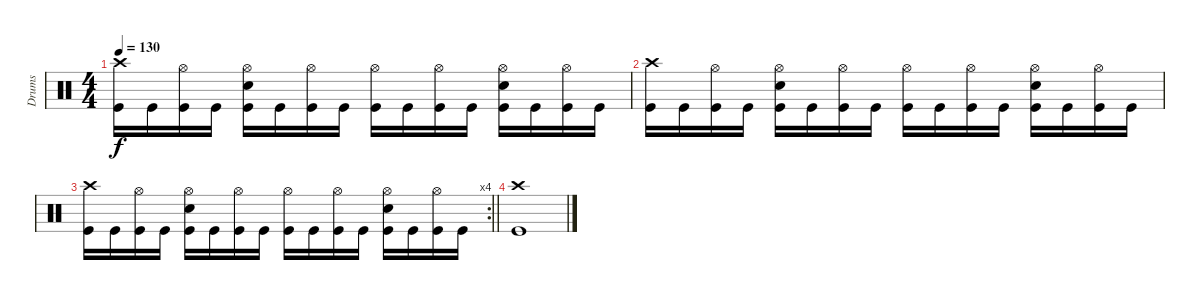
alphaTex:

\track ("Drums" "Drums") {instrument percussion}
\staff {score}
\articulation defaults
\ts (4 4)
\tempo 130
\clef neutral
\ks c
("Crash high (hit)" "Kick (hit)").16{dy f} "Kick (hit)".16 ("Hi-Hat (open)" "Kick (hit)").16 "Kick (hit)".16 ("Hi-Hat (open)" "Snare (hit) 2" "Kick (hit)").16 "Kick (hit)".16 ("Hi-Hat (open)" "Kick (hit)").16 "Kick (hit)".16 ("Hi-Hat (open)" "Kick (hit)").16 "Kick (hit)".16 ("Hi-Hat (open)" "Kick (hit)").16 "Kick (hit)".16 ("Hi-Hat (open)" "Snare (hit) 2" "Kick (hit)").16 "Kick (hit)".16 ("Hi-Hat (open)" "Kick (hit)").16 "Kick (hit)".16 |
("Crash high (hit)" "Kick (hit)").16 "Kick (hit)".16 ("Hi-Hat (open)" "Kick (hit)").16 "Kick (hit)".16 ("Hi-Hat (open)" "Snare (hit) 2" "Kick (hit)").16 "Kick (hit)".16 ("Hi-Hat (open)" "Kick (hit)").16 "Kick (hit)".16 ("Hi-Hat (open)" "Kick (hit)").16 "Kick (hit)".16 ("Hi-Hat (open)" "Kick (hit)").16 "Kick (hit)".16 ("Hi-Hat (open)" "Snare (hit) 2" "Kick (hit)").16 "Kick (hit)".16 ("Hi-Hat (open)" "Kick (hit)").16 "Kick (hit)".16 |
\rc 4
\barLineRight lightlight
("Crash high (hit)" "Kick (hit)").16 "Kick (hit)".16 ("Hi-Hat (open)" "Kick (hit)").16 "Kick (hit)".16 ("Hi-Hat (open)" "Snare (hit) 2" "Kick (hit)").16 "Kick (hit)".16 ("Hi-Hat (open)" "Kick (hit)").16 "Kick (hit)".16 ("Hi-Hat (open)" "Kick (hit)").16 "Kick (hit)".16 ("Hi-Hat (open)" "Kick (hit)").16 "Kick (hit)".16 ("Hi-Hat (open)" "Snare (hit) 2" "Kick (hit)").16 "Kick (hit)".16 ("Hi-Hat (open)" "Kick (hit)").16 "Kick (hit)".16 |
("Crash high (hit)" "Kick (hit)").1
